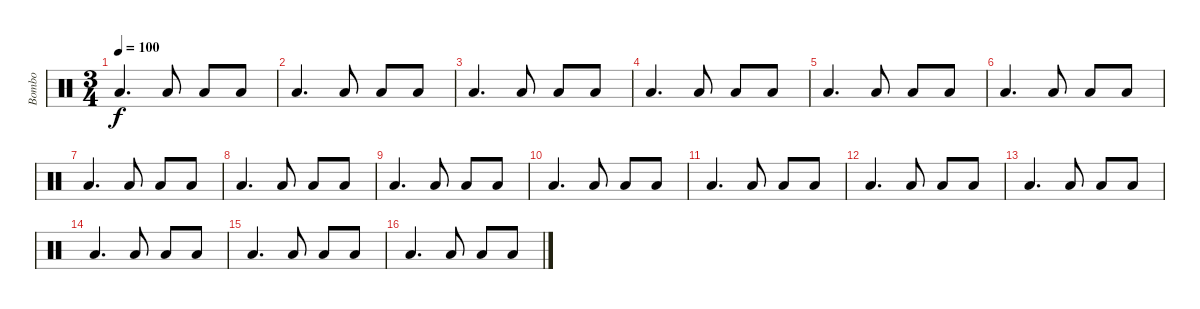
\track ("Bombo" "Bombo") {instrument percussion}
\staff {score}
\articulation defaults
\ts (3 4)
\tempo 100
\clef neutral
\ks c "Low Floor Tom (hit)".4{d dy f} "Low Floor Tom (hit)".8 "Low Floor Tom (hit)".8 "Low Floor Tom (hit)".8
|
"Low Floor Tom (hit)".4{d} "Low Floor Tom (hit)".8 "Low Floor Tom (hit)".8 "Low Floor Tom (hit)".8 |
"Low Floor Tom (hit)".4{d} "Low Floor Tom (hit)".8 "Low Floor Tom (hit)".8 "Low Floor Tom (hit)".8 |
"Low Floor Tom (hit)".4{d} "Low Floor Tom (hit)".8 "Low Floor Tom (hit)".8 "Low Floor Tom (hit)".8 |
"Low Floor Tom (hit)".4{d} "Low Floor Tom (hit)".8 "Low Floor Tom (hit)".8 "Low Floor Tom (hit)".8 |
"Low Floor Tom (hit)".4{d} "Low Floor Tom (hit)".8 "Low Floor Tom (hit)".8 "Low Floor Tom (hit)".8 |
"Low Floor Tom (hit)".4{d} "Low Floor Tom (hit)".8 "Low Floor Tom (hit)".8 "Low Floor Tom (hit)".8 |
"Low Floor Tom (hit)".4{d} "Low Floor Tom (hit)".8 "Low Floor Tom (hit)".8 "Low Floor Tom (hit)".8 |
"Low Floor Tom (hit)".4{d} "Low Floor Tom (hit)".8 "Low Floor Tom (hit)".8 "Low Floor Tom (hit)".8 |
"Low Floor Tom (hit)".4{d} "Low Floor Tom (hit)".8 "Low Floor Tom (hit)".8 "Low Floor Tom (hit)".8 |
"Low Floor Tom (hit)".4{d} "Low Floor Tom (hit)".8 "Low Floor Tom (hit)".8 "Low Floor Tom (hit)".8 |
"Low Floor Tom (hit)".4{d} "Low Floor Tom (hit)".8 "Low Floor Tom (hit)".8 "Low Floor Tom (hit)".8 |
"Low Floor Tom (hit)".4{d} "Low Floor Tom (hit)".8 "Low Floor Tom (hit)".8 "Low Floor Tom (hit)".8 |
"Low Floor Tom (hit)".4{d} "Low Floor Tom (hit)".8 "Low Floor Tom (hit)".8 "Low Floor Tom (hit)".8 |
"Low Floor Tom (hit)".4{d} "Low Floor Tom (hit)".8 "Low Floor Tom (hit)".8 "Low Floor Tom (hit)".8 |
"Low Floor Tom (hit)".4{d} "Low Floor Tom (hit)".8 "Low Floor Tom (hit)".8 "Low Floor Tom (hit)".8
